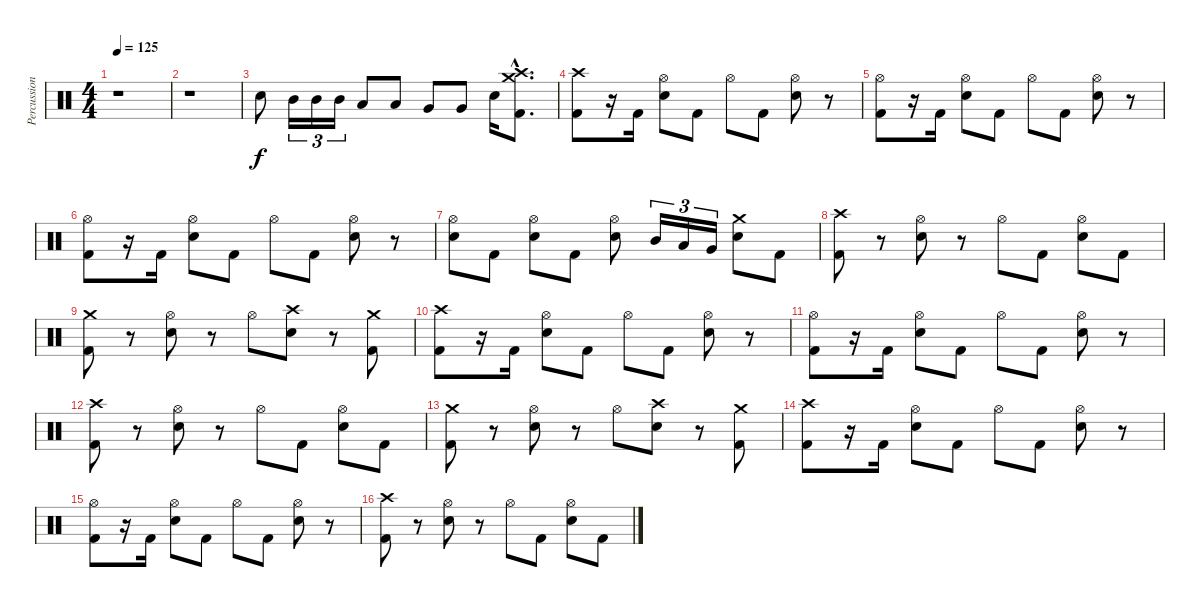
\track ("Percussion" "Percussion") {instrument percussion}
\staff {score}
\articulation defaults
\ts (4 4)
\tempo 125
\clef neutral
\ks c
r.1{dy f} |
r.1 |
"Snare (hit) 2".8 "Mid Tom (hit)".16{tu (3 2)} "Mid Tom (hit)".16{tu (3 2)} "Mid Tom (hit)".16{tu (3 2)} "Low Tom (hit)".8 "Low Tom (hit)".8 "Very Low Tom (hit)".8 "Very Low Tom (hit)".8 "Snare (hit) 2".16 ("Crash high (hit)"{hac} "Crash medium (hit)"{hac} "Kick (hit) 2"{hac}).8{d} |
("Crash high (hit)" "Kick (hit) 2").8 r.16 "Kick (hit) 2".16 ("Hi-Hat (open)" "Snare (hit) 2").8 "Kick (hit) 2".8 "Hi-Hat (open)".8 "Kick (hit) 2".8 ("Hi-Hat (open)" "Snare (hit) 2").8 r.8 |
("Hi-Hat (open)" "Kick (hit) 2").8 r.16 "Kick (hit) 2".16 ("Hi-Hat (open)" "Snare (hit) 2").8 "Kick (hit) 2".8 "Hi-Hat (open)".8 "Kick (hit) 2".8 ("Hi-Hat (open)" "Snare (hit) 2").8 r.8 |
("Hi-Hat (open)" "Kick (hit) 2").8 r.16 "Kick (hit) 2".16 ("Hi-Hat (open)" "Snare (hit) 2").8 "Kick (hit) 2".8 "Hi-Hat (open)".8 "Kick (hit) 2".8 ("Hi-Hat (open)" "Snare (hit) 2").8 r.8 |
\section ("" "")
("Hi-Hat (open)" "Snare (hit) 2").8 "Kick (hit) 2".8 ("Hi-Hat (open)" "Snare (hit) 2").8 "Kick (hit) 2".8 ("Hi-Hat (open)" "Snare (hit) 2").8 "Mid Tom (hit)".16{tu (3 2)} "Low Tom (hit)".16{tu (3 2)} "Very Low Tom (hit)".16{tu (3 2)} ("Crash medium (hit)" "Snare (hit) 2").8 "Kick (hit) 2".8 |
("Crash high (hit)" "Kick (hit) 2").8 r.8 ("Hi-Hat (open)" "Snare (hit) 2").8 r.8 "Hi-Hat (open)".8 "Kick (hit) 2".8 ("Hi-Hat (open)" "Snare (hit) 2").8 "Kick (hit) 2".8 |
\section ("" "")
("Crash medium (hit)" "Kick (hit) 2").8 r.8 ("Hi-Hat (open)" "Snare (hit) 2").8 r.8 "Hi-Hat (open)".8 ("Crash high (hit)" "Snare (hit) 2").8 r.8 ("Crash medium (hit)" "Kick (hit) 2").8 |
("Crash high (hit)" "Kick (hit) 2").8 r.16 "Kick (hit) 2".16 ("Hi-Hat (open)" "Snare (hit) 2").8 "Kick (hit) 2".8 "Hi-Hat (open)".8 "Kick (hit) 2".8 ("Hi-Hat (open)" "Snare (hit) 2").8 r.8 |
("Hi-Hat (open)" "Kick (hit) 2").8 r.16 "Kick (hit) 2".16 ("Hi-Hat (open)" "Snare (hit) 2").8 "Kick (hit) 2".8 "Hi-Hat (open)".8 "Kick (hit) 2".8 ("Hi-Hat (open)" "Snare (hit) 2").8 r.8 |
("Crash high (hit)" "Kick (hit) 2").8 r.8 ("Hi-Hat (open)" "Snare (hit) 2").8 r.8 "Hi-Hat (open)".8 "Kick (hit) 2".8 ("Hi-Hat (open)" "Snare (hit) 2").8 "Kick (hit) 2".8 |
("Crash medium (hit)" "Kick (hit) 2").8 r.8 ("Hi-Hat (open)" "Snare (hit) 2").8 r.8 "Hi-Hat (open)".8 ("Crash high (hit)" "Snare (hit) 2").8 r.8 ("Crash medium (hit)" "Kick (hit) 2").8 |
("Crash high (hit)" "Kick (hit) 2").8 r.16 "Kick (hit) 2".16 ("Hi-Hat (open)" "Snare (hit) 2").8 "Kick (hit) 2".8 "Hi-Hat (open)".8 "Kick (hit) 2".8 ("Hi-Hat (open)" "Snare (hit) 2").8 r.8 |
("Hi-Hat (open)" "Kick (hit) 2").8 r.16 "Kick (hit) 2".16 ("Hi-Hat (open)" "Snare (hit) 2").8 "Kick (hit) 2".8 "Hi-Hat (open)".8 "Kick (hit) 2".8 ("Hi-Hat (open)" "Snare (hit) 2").8 r.8 |
("Crash high (hit)" "Kick (hit) 2").8 r.8 ("Hi-Hat (open)" "Snare (hit) 2").8 r.8 "Hi-Hat (open)".8 "Kick (hit) 2".8 ("Hi-Hat (open)" "Snare (hit) 2").8 "Kick (hit) 2".8
